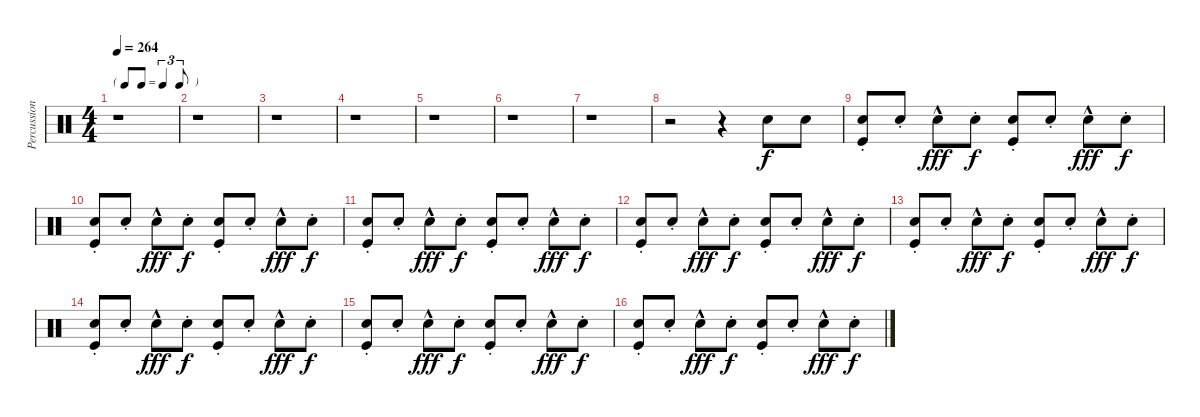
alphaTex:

\track ("Percussions" "Percussion") {instrument percussion}
\staff {score}
\articulation defaults
\ts (4 4)
\tf triplet8th
\tempo 264
\clef neutral
\ks c
r.1{dy f} |
r.1 |
r.1 |
r.1 |
r.1 |
r.1 |
r.1 |
r.2 r.4 "Snare (hit) 2".8 "Snare (hit) 2".8 |
("Snare (hit) 2"{st} "Kick (hit)").8 "Snare (hit) 2"{st}.8 "Snare (hit) 2"{hac}.8{dy fff} "Snare (hit) 2"{st}.8{dy f} ("Snare (hit) 2"{st} "Kick (hit)").8 "Snare (hit) 2"{st}.8 "Snare (hit) 2"{hac}.8{dy fff} "Snare (hit) 2"{st}.8{dy f} |
("Snare (hit) 2"{st} "Kick (hit)").8 "Snare (hit) 2"{st}.8 "Snare (hit) 2"{hac}.8{dy fff} "Snare (hit) 2"{st}.8{dy f} ("Snare (hit) 2"{st} "Kick (hit)").8 "Snare (hit) 2"{st}.8 "Snare (hit) 2"{hac}.8{dy fff} "Snare (hit) 2"{st}.8{dy f} |
("Snare (hit) 2"{st} "Kick (hit)").8 "Snare (hit) 2"{st}.8 "Snare (hit) 2"{hac}.8{dy fff} "Snare (hit) 2"{st}.8{dy f} ("Snare (hit) 2"{st} "Kick (hit)").8 "Snare (hit) 2"{st}.8 "Snare (hit) 2"{hac}.8{dy fff} "Snare (hit) 2"{st}.8{dy f} |
("Snare (hit) 2"{st} "Kick (hit)").8 "Snare (hit) 2"{st}.8 "Snare (hit) 2"{hac}.8{dy fff} "Snare (hit) 2"{st}.8{dy f} ("Snare (hit) 2"{st} "Kick (hit)").8 "Snare (hit) 2"{st}.8 "Snare (hit) 2"{hac}.8{dy fff} "Snare (hit) 2"{st}.8{dy f} |
("Snare (hit) 2"{st} "Kick (hit)").8 "Snare (hit) 2"{st}.8 "Snare (hit) 2"{hac}.8{dy fff} "Snare (hit) 2"{st}.8{dy f} ("Snare (hit) 2"{st} "Kick (hit)").8 "Snare (hit) 2"{st}.8 "Snare (hit) 2"{hac}.8{dy fff} "Snare (hit) 2"{st}.8{dy f} |
("Snare (hit) 2"{st} "Kick (hit)").8 "Snare (hit) 2"{st}.8 "Snare (hit) 2"{hac}.8{dy fff} "Snare (hit) 2"{st}.8{dy f} ("Snare (hit) 2"{st} "Kick (hit)").8 "Snare (hit) 2"{st}.8 "Snare (hit) 2"{hac}.8{dy fff} "Snare (hit) 2"{st}.8{dy f} |
("Snare (hit) 2"{st} "Kick (hit)").8 "Snare (hit) 2"{st}.8 "Snare (hit) 2"{hac}.8{dy fff} "Snare (hit) 2"{st}.8{dy f} ("Snare (hit) 2"{st} "Kick (hit)").8 "Snare (hit) 2"{st}.8 "Snare (hit) 2"{hac}.8{dy fff} "Snare (hit) 2"{st}.8{dy f} |
("Snare (hit) 2"{st} "Kick (hit)").8 "Snare (hit) 2"{st}.8 "Snare (hit) 2"{hac}.8{dy fff} "Snare (hit) 2"{st}.8{dy f} ("Snare (hit) 2"{st} "Kick (hit)").8 "Snare (hit) 2"{st}.8 "Snare (hit) 2"{hac}.8{dy fff} "Snare (hit) 2"{st}.8{dy f}
